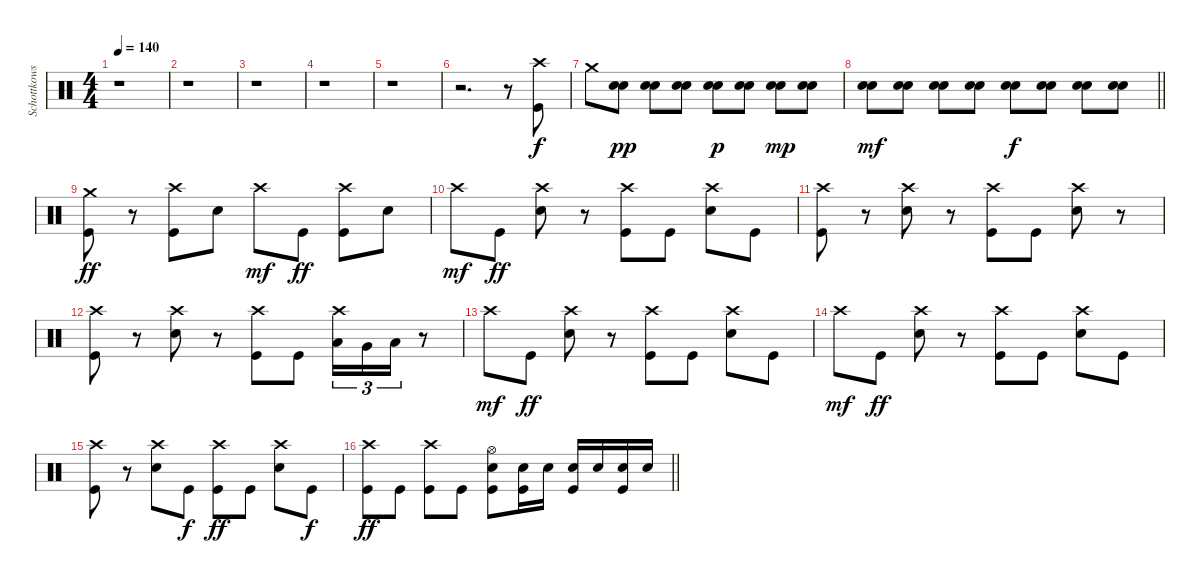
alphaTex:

\track ("Schottkowski" "Schottkows") {instrument percussion}
\staff {score}
\articulation defaults
\ts (4 4)
\tempo 140
\clef neutral
\ks c
r.1{dy f} |
r.1 |
r.1 |
r.1 |
r.1 |
r.2{d} r.8 ("Crash high (hit)" "Kick (hit)").8 |
"Crash medium (hit)".8 ("Snare (hit) 2" "Snare (hit) 2").8{dy pp} ("Snare (hit) 2" "Snare (hit) 2").8 ("Snare (hit) 2" "Snare (hit) 2").8 ("Snare (hit) 2" "Snare (hit) 2").8{dy p} ("Snare (hit) 2" "Snare (hit) 2").8 ("Snare (hit) 2" "Snare (hit) 2").8{dy mp} ("Snare (hit) 2" "Snare (hit) 2").8 |
\barLineRight lightlight
("Snare (hit) 2" "Snare (hit) 2").8{dy mf} ("Snare (hit) 2" "Snare (hit) 2").8 ("Snare (hit) 2" "Snare (hit) 2").8 ("Snare (hit) 2" "Snare (hit) 2").8 ("Snare (hit) 2" "Snare (hit) 2").8{dy f} ("Snare (hit) 2" "Snare (hit) 2").8 ("Snare (hit) 2" "Snare (hit) 2").8 ("Snare (hit) 2" "Snare (hit) 2").8 |
\section ("" "")
("Crash medium (hit)" "Kick (hit)").8{dy ff} r.8 ("Crash high (hit)" "Kick (hit)").8 "Snare (hit) 2".8 "Crash high (hit)".8{dy mf} "Kick (hit)".8{dy ff} ("Crash high (hit)" "Kick (hit)").8 "Snare (hit) 2".8 |
"Crash high (hit)".8{dy mf} "Kick (hit)".8{dy ff} ("Crash high (hit)" "Snare (hit) 2").8 r.8 ("Crash high (hit)" "Kick (hit)").8 "Kick (hit)".8 ("Crash high (hit)" "Snare (hit) 2").8 "Kick (hit)".8 |
("Crash high (hit)" "Kick (hit)").8 r.8 ("Crash high (hit)" "Snare (hit) 2").8 r.8 ("Crash high (hit)" "Kick (hit)").8 "Kick (hit)".8 ("Crash high (hit)" "Snare (hit) 2").8 r.8 |
("Crash high (hit)" "Kick (hit)").8 r.8 ("Crash high (hit)" "Snare (hit) 2").8 r.8 ("Crash high (hit)" "Kick (hit)").8 "Kick (hit)".8 ("Crash high (hit)" "Low Tom (hit)").16{tu (3 2)} "Very Low Tom (hit)".16{tu (3 2)} "Low Floor Tom (hit)".16{tu (3 2)} r.8 |
"Crash high (hit)".8{dy mf} "Kick (hit)".8{dy ff} ("Crash high (hit)" "Snare (hit) 2").8 r.8 ("Crash high (hit)" "Kick (hit)").8 "Kick (hit)".8 ("Crash high (hit)" "Snare (hit) 2").8 "Kick (hit)".8 |
"Crash high (hit)".8{dy mf} "Kick (hit)".8{dy ff} ("Crash high (hit)" "Snare (hit) 2").8 r.8 ("Crash high (hit)" "Kick (hit)").8 "Kick (hit)".8 ("Crash high (hit)" "Snare (hit) 2").8 "Kick (hit)".8 |
("Crash high (hit)" "Kick (hit)").8 r.8 ("Crash high (hit)" "Snare (hit) 2").8 "Kick (hit)".8{dy f} ("Crash high (hit)" "Kick (hit)").8{dy ff} "Kick (hit)".8 ("Crash high (hit)" "Snare (hit) 2").8 "Kick (hit)".8{dy f} |
\barLineRight lightlight
("Crash high (hit)" "Kick (hit)").8{dy ff} "Kick (hit)".8 ("Crash high (hit)" "Kick (hit)").8 "Kick (hit)".8 ("Hi-Hat (open)" "Snare (hit) 2" "Kick (hit)").8 ("Snare (hit) 2" "Kick (hit)").16 "Snare (hit) 2".16 ("Snare (hit) 2" "Kick (hit)").16 "Snare (hit) 2".16 ("Snare (hit) 2" "Kick (hit)").16 "Snare (hit) 2".16
